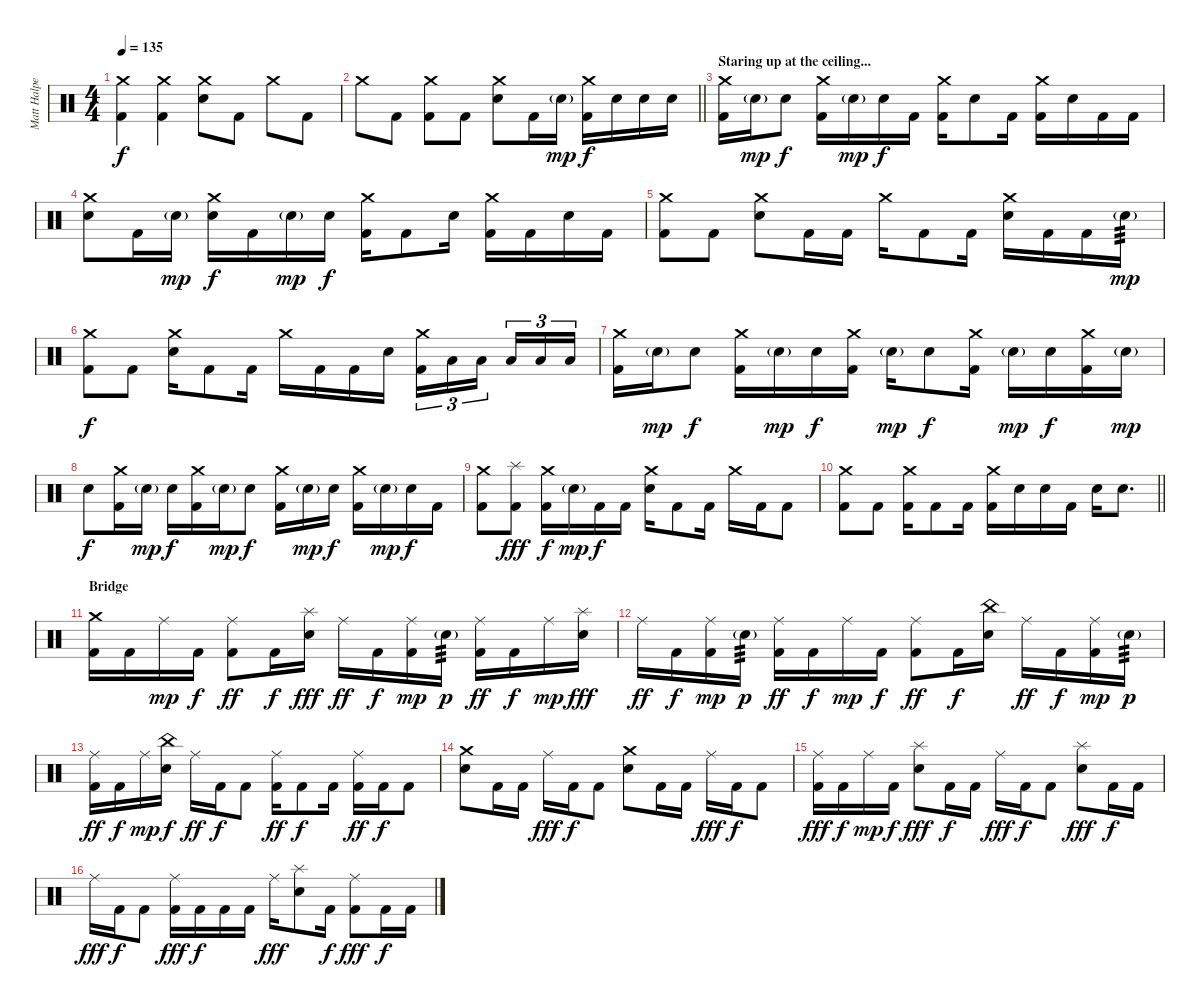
\track ("Matt Halpern - Drums" "Matt Halpe") {instrument percussion}
\staff {score}
\articulation defaults
\ts (4 4)
\tempo 135
\clef neutral
\ks c
("Crash medium (hit)" "Kick (hit) 2").4{dy f} ("Crash medium (hit)" "Kick (hit) 2").4 ("Crash medium (hit)" "Electric Snare (hit)").8 "Kick (hit) 2".8 "Crash medium (hit)".8 "Kick (hit) 2".8 |
\barLineRight lightlight "Crash medium (hit)".8 "Kick (hit) 2".8
("Crash medium (hit)" "Kick (hit) 2").8 "Kick (hit) 2".8 ("Crash medium (hit)" "Electric Snare (hit)").8 "Kick (hit) 2".16 "Electric Snare (hit)"{g}.16{dy mp} ("Crash medium (hit)" "Kick (hit) 2").16{dy f} "Electric Snare (hit)".16 "Electric Snare (hit)".16 "Electric Snare (hit)".16 |
\section ("" "Staring up at the ceiling...")
("Crash medium (hit)" "Kick (hit) 2").16 "Electric Snare (hit)"{g}.16{dy mp} "Electric Snare (hit)".8{dy f} ("Crash medium (hit)" "Kick (hit) 2").16 "Electric Snare (hit)"{g}.16{dy mp} "Electric Snare (hit)".16{dy f} "Kick (hit) 2".16 ("Crash medium (hit)" "Kick (hit) 2").16 "Electric Snare (hit)".8 "Kick (hit) 2".16 ("Crash medium (hit)" "Kick (hit) 2").16 "Electric Snare (hit)".16 "Kick (hit) 2".16 "Kick (hit) 2".16 |
("Crash medium (hit)" "Electric Snare (hit)").8 "Kick (hit) 2".16 "Electric Snare (hit)"{g}.16{dy mp} ("Crash medium (hit)" "Electric Snare (hit)").16{dy f} "Kick (hit) 2".16 "Electric Snare (hit)"{g}.16{dy mp} "Electric Snare (hit)".16{dy f} ("Crash medium (hit)" "Kick (hit) 2").16 "Kick (hit) 2".8 "Electric Snare (hit)".16 ("Crash medium (hit)" "Kick (hit) 2").16 "Kick (hit) 2".16 "Electric Snare (hit)".16 "Kick (hit) 2".16 |
("Crash medium (hit)" "Kick (hit) 2").8 "Kick (hit) 2".8 ("Crash medium (hit)" "Electric Snare (hit)").8 "Kick (hit) 2".16 "Kick (hit) 2".16 "Crash medium (hit)".16 "Kick (hit) 2".8 "Kick (hit) 2".16 ("Crash medium (hit)" "Electric Snare (hit)").16 "Kick (hit) 2".16 "Kick (hit) 2".16 "Electric Snare (hit)"{g}.16{tp 3 dy mp} |
("Crash medium (hit)" "Kick (hit) 2").8{dy f} "Kick (hit) 2".8 ("Crash medium (hit)" "Electric Snare (hit)").16 "Kick (hit) 2".8 "Kick (hit) 2".16 "Crash medium (hit)".16 "Kick (hit) 2".16 "Kick (hit) 2".16 "Electric Snare (hit)".16 ("Crash medium (hit)" "Kick (hit) 2").16{tu (3 2)} "Low Floor Tom (hit)".16{tu (3 2)} "Low Floor Tom (hit)".16{tu (3 2) beam splitsecondary} "Low Floor Tom (hit)".16{tu (3 2)} "Low Floor Tom (hit)".16{tu (3 2)} "Low Floor Tom (hit)".16{tu (3 2)} |
("Crash medium (hit)" "Kick (hit) 2").16 "Electric Snare (hit)"{g}.16{dy mp} "Electric Snare (hit)".8{dy f} ("Crash medium (hit)" "Kick (hit) 2").16 "Electric Snare (hit)"{g}.16{dy mp} "Electric Snare (hit)".16{dy f} ("Crash medium (hit)" "Kick (hit) 2").16 "Electric Snare (hit)"{g}.16{dy mp} "Electric Snare (hit)".8{dy f} ("Crash medium (hit)" "Kick (hit) 2").16 "Electric Snare (hit)"{g}.16{dy mp} "Electric Snare (hit)".16{dy f} ("Crash medium (hit)" "Kick (hit) 2").16 "Electric Snare (hit)"{g}.16{dy mp} |
"Electric Snare (hit)".8{dy f} ("Crash medium (hit)" "Kick (hit) 2").16 "Electric Snare (hit)"{g}.16{dy mp} "Electric Snare (hit)".16{dy f} ("Crash medium (hit)" "Kick (hit) 2").16 "Electric Snare (hit)"{g}.16{dy mp} "Electric Snare (hit)".8{dy f} ("Crash medium (hit)" "Kick (hit) 2").16 "Electric Snare (hit)"{g}.16{dy mp} "Electric Snare (hit)".16{dy f} ("Crash medium (hit)" "Kick (hit) 2").16 "Electric Snare (hit)"{g}.16{dy mp} "Electric Snare (hit)".16{dy f} "Kick (hit) 2".16 |
("Crash medium (hit)" "Kick (hit) 2").8 ("Splash (hit)" "Kick (hit) 2").8{dy fff} ("Crash medium (hit)" "Kick (hit) 2").16{dy f} "Electric Snare (hit)"{g}.16{dy mp} "Kick (hit) 2".16{dy f} "Kick (hit) 2".16 ("Crash medium (hit)" "Electric Snare (hit)").16 "Kick (hit) 2".8 "Kick (hit) 2".16 "Crash medium (hit)".16 "Kick (hit) 2".16 "Kick (hit) 2".8 |
\barLineRight lightlight
("Crash medium (hit)" "Kick (hit) 2").8 "Kick (hit) 2".8 ("Crash medium (hit)" "Kick (hit) 2").16 "Kick (hit) 2".8 "Kick (hit) 2".16 ("Crash medium (hit)" "Kick (hit) 2").16 "Electric Snare (hit)".16 "Electric Snare (hit)".16 "Kick (hit) 2".16 "Electric Snare (hit)".16 "Electric Snare (hit)".8{d} |
\section ("" "Bridge")
("Crash medium (hit)" "Kick (hit) 2").16 "Kick (hit) 2".16 "Ride (middle)".16{dy mp} "Kick (hit) 2".16{dy f} ("Ride (middle)" "Kick (hit) 2").8{dy ff} "Kick (hit) 2".16{dy f} ("Splash (hit)" "Electric Snare (hit)").16{dy fff} "Ride (middle)".16{dy ff} "Kick (hit) 2".16{dy f} ("Ride (middle)" "Kick (hit) 2").16{dy mp} "Electric Snare (hit)"{g}.16{tp 3 dy p} ("Ride (middle)" "Kick (hit) 2").16{dy ff} "Kick (hit) 2".16{dy f} "Ride (middle)".16{dy mp} ("Splash (hit)" "Electric Snare (hit)").16{dy fff} |
"Ride (middle)".16{dy ff} "Kick (hit) 2".16{dy f} ("Ride (middle)" "Kick (hit) 2").16{dy mp} "Electric Snare (hit)"{g}.16{tp 3 dy p} ("Ride (middle)" "Kick (hit) 2").16{dy ff} "Kick (hit) 2".16{dy f} "Ride (middle)".16{dy mp} "Kick (hit) 2".16{dy f} ("Ride (middle)" "Kick (hit) 2").8{dy ff} "Kick (hit) 2".16{dy f} ("China (hit)" "Electric Snare (hit)").16 "Ride (middle)".16{dy ff} "Kick (hit) 2".16{dy f} ("Ride (middle)" "Kick (hit) 2").16{dy mp} "Electric Snare (hit)"{g}.16{tp 3 dy p} |
("Ride (middle)" "Kick (hit) 2").16{dy ff} "Kick (hit) 2".16{dy f} "Ride (middle)".16{dy mp} ("China (hit)" "Electric Snare (hit)").16{dy f} "Ride (middle)".16{dy ff} "Kick (hit) 2".16{dy f} "Kick (hit) 2".8 ("Ride (middle)" "Kick (hit) 2").16{dy ff} "Kick (hit) 2".8{dy f} "Kick (hit) 2".16 ("Ride (middle)" "Kick (hit) 2").16{dy ff} "Kick (hit) 2".16{dy f} "Kick (hit) 2".8 |
("Crash medium (hit)" "Electric Snare (hit)").8 "Kick (hit) 2".16 "Kick (hit) 2".16 "Ride (middle)".16{dy fff} "Kick (hit) 2".16{dy f} "Kick (hit) 2".8 ("Crash medium (hit)" "Electric Snare (hit)").8 "Kick (hit) 2".16 "Kick (hit) 2".16 "Ride (middle)".16{dy fff} "Kick (hit) 2".16{dy f} "Kick (hit) 2".8 |
("Ride (middle)" "Kick (hit) 2").16{dy fff} "Kick (hit) 2".16{dy f} "Ride (middle)".16{dy mp} "Kick (hit) 2".16{dy f} ("Splash (hit)" "Electric Snare (hit)").8{dy fff} "Kick (hit) 2".16{dy f} "Kick (hit) 2".16 "Ride (middle)".16{dy fff} "Kick (hit) 2".16{dy f} "Kick (hit) 2".8 ("Splash (hit)" "Electric Snare (hit)").8{dy fff} "Kick (hit) 2".16{dy f} "Kick (hit) 2".16 |
"Ride (middle)".16{dy fff} "Kick (hit) 2".16{dy f} "Kick (hit) 2".8 ("Ride (middle)" "Kick (hit) 2").16{dy fff} "Kick (hit) 2".16{dy f} "Kick (hit) 2".16 "Kick (hit) 2".16 "Ride (middle)".16{dy fff} ("Splash (hit)" "Electric Snare (hit)").8 "Kick (hit) 2".16{dy f} ("Ride (middle)" "Kick (hit) 2").8{dy fff} "Kick (hit) 2".16{dy f} "Kick (hit) 2".16
